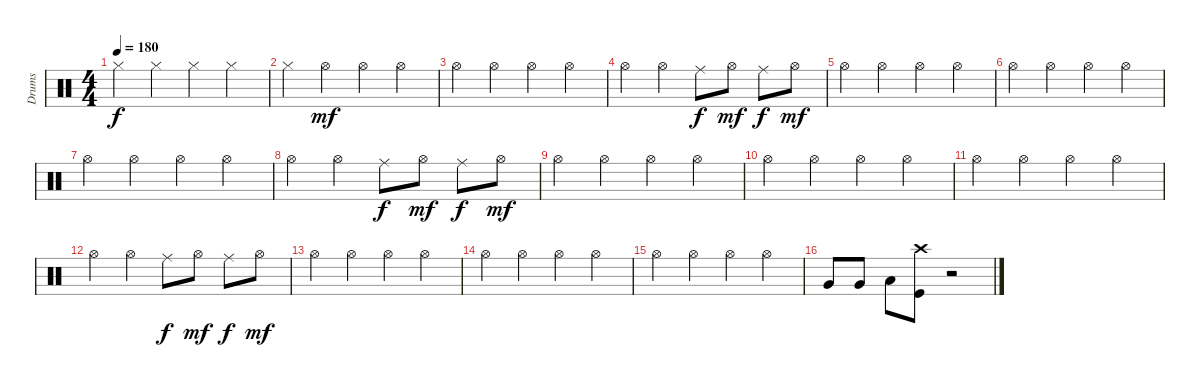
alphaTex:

\track ("Drums" "Drums") {instrument percussion}
\staff {score}
\articulation defaults
\ts (4 4)
\tempo 180
\clef neutral
\ks c "Hi-Hat (closed)".4{dy f} "Hi-Hat (closed)".4 "Hi-Hat (closed)".4 "Hi-Hat (closed)".4
|
"Hi-Hat (closed)".4 "Hi-Hat (open)".4{dy mf} "Hi-Hat (open)".4 "Hi-Hat (open)".4 |
"Hi-Hat (open)".4 "Hi-Hat (open)".4 "Hi-Hat (open)".4 "Hi-Hat (open)".4 |
"Hi-Hat (open)".4 "Hi-Hat (open)".4 "Ride (middle)".8{dy f balance 16} "Hi-Hat (open)".8{dy mf balance 2} "Ride (middle)".8{dy f balance 16} "Hi-Hat (open)".8{dy mf balance 2} |
"Hi-Hat (open)".4 "Hi-Hat (open)".4 "Hi-Hat (open)".4 "Hi-Hat (open)".4 |
"Hi-Hat (open)".4 "Hi-Hat (open)".4 "Hi-Hat (open)".4 "Hi-Hat (open)".4 |
"Hi-Hat (open)".4 "Hi-Hat (open)".4 "Hi-Hat (open)".4 "Hi-Hat (open)".4 |
"Hi-Hat (open)".4 "Hi-Hat (open)".4 "Ride (middle)".8{dy f balance 16} "Hi-Hat (open)".8{dy mf balance 2} "Ride (middle)".8{dy f balance 16} "Hi-Hat (open)".8{dy mf balance 2} |
"Hi-Hat (open)".4 "Hi-Hat (open)".4 "Hi-Hat (open)".4 "Hi-Hat (open)".4 |
"Hi-Hat (open)".4 "Hi-Hat (open)".4 "Hi-Hat (open)".4 "Hi-Hat (open)".4 |
"Hi-Hat (open)".4 "Hi-Hat (open)".4 "Hi-Hat (open)".4 "Hi-Hat (open)".4 |
"Hi-Hat (open)".4 "Hi-Hat (open)".4 "Ride (middle)".8{dy f balance 16} "Hi-Hat (open)".8{dy mf balance 2} "Ride (middle)".8{dy f balance 16} "Hi-Hat (open)".8{dy mf balance 2} |
"Hi-Hat (open)".4 "Hi-Hat (open)".4 "Hi-Hat (open)".4 "Hi-Hat (open)".4 |
"Hi-Hat (open)".4 "Hi-Hat (open)".4 "Hi-Hat (open)".4 "Hi-Hat (open)".4 |
"Hi-Hat (open)".4 "Hi-Hat (open)".4 "Hi-Hat (open)".4 "Hi-Hat (open)".4 |
"Very Low Tom (hit)".8{volume 12 balance 0} "Very Low Tom (hit)".8 "Low Floor Tom (hit)".8 ("Crash high (hit)" "Kick (hit)").8 r.2
